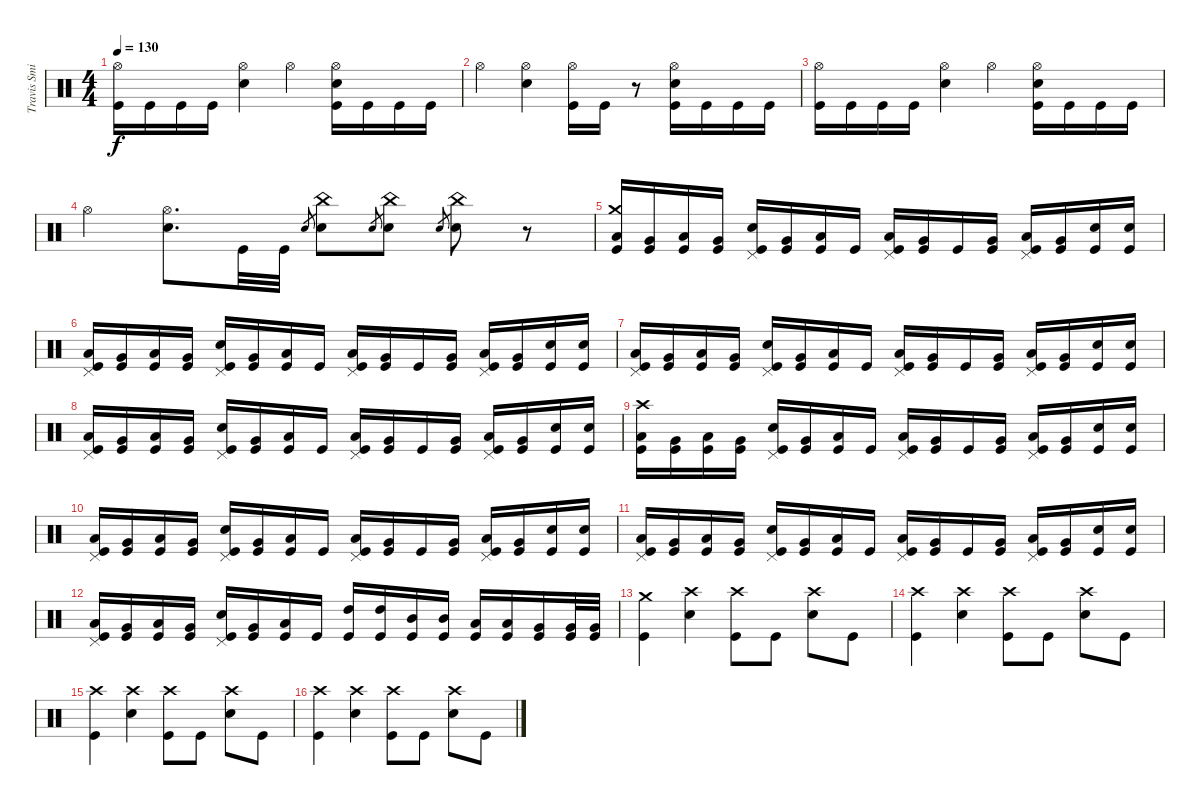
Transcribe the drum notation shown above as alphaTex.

\track ("Travis Smith" "Travis Smi") {instrument percussion}
\staff {score}
\articulation defaults
\ts (4 4)
\tempo 130
\clef neutral
\ks c
("Hi-Hat (open)" "Kick (hit)").16{dy f} "Kick (hit)".16 "Kick (hit)".16 "Kick (hit)".16 ("Hi-Hat (open)" "Snare (hit) 2").4 "Hi-Hat (open)".4 ("Hi-Hat (open)" "Snare (hit) 2" "Kick (hit)").16 "Kick (hit)".16 "Kick (hit)".16 "Kick (hit)".16 |
"Hi-Hat (open)".4 ("Hi-Hat (open)" "Snare (hit) 2").4 ("Hi-Hat (open)" "Kick (hit)").16 "Kick (hit)".16 r.8 ("Hi-Hat (open)" "Snare (hit) 2" "Kick (hit)").16 "Kick (hit)".16 "Kick (hit)".16 "Kick (hit)".16 |
("Hi-Hat (open)" "Kick (hit)").16 "Kick (hit)".16 "Kick (hit)".16 "Kick (hit)".16 ("Hi-Hat (open)" "Snare (hit) 2").4 "Hi-Hat (open)".4 ("Hi-Hat (open)" "Snare (hit) 2" "Kick (hit)").16 "Kick (hit)".16 "Kick (hit)".16 "Kick (hit)".16 |
"Hi-Hat (open)".4 ("Hi-Hat (open)" "Snare (hit) 2").8{d} "Kick (hit)".32 "Kick (hit)".32 "Snare (hit) 2".8{gr} ("China (hit)" "Snare (hit) 2").8 "Snare (hit) 2".8{gr} ("China (hit)" "Snare (hit) 2").8 "Snare (hit) 2".8{gr} ("China (hit)" "Snare (hit) 2").8 r.8 |
("Crash medium (hit)" "Low Tom (hit)" "Kick (hit)").16 ("Very Low Tom (hit)" "Kick (hit)").16 ("Low Tom (hit)" "Kick (hit)").16 ("Very Low Tom (hit)" "Kick (hit)").16 ("Pedal Hi-Hat (hit)" "Snare (hit) 2" "Kick (hit)").16 ("Very Low Tom (hit)" "Kick (hit)").16 ("Low Tom (hit)" "Kick (hit)").16 "Kick (hit)".16 ("Pedal Hi-Hat (hit)" "Low Tom (hit)" "Kick (hit)").16 ("Very Low Tom (hit)" "Kick (hit)").16 "Kick (hit)".16 ("Very Low Tom (hit)" "Kick (hit)").16 ("Pedal Hi-Hat (hit)" "Low Tom (hit)" "Kick (hit)").16 ("Very Low Tom (hit)" "Kick (hit)").16 ("Snare (hit) 2" "Kick (hit)").16 ("Snare (hit) 2" "Kick (hit)").16 |
("Pedal Hi-Hat (hit)" "Low Tom (hit)" "Kick (hit)").16 ("Very Low Tom (hit)" "Kick (hit)").16 ("Low Tom (hit)" "Kick (hit)").16 ("Very Low Tom (hit)" "Kick (hit)").16 ("Pedal Hi-Hat (hit)" "Snare (hit) 2" "Kick (hit)").16 ("Very Low Tom (hit)" "Kick (hit)").16 ("Low Tom (hit)" "Kick (hit)").16 "Kick (hit)".16 ("Pedal Hi-Hat (hit)" "Low Tom (hit)" "Kick (hit)").16 ("Very Low Tom (hit)" "Kick (hit)").16 "Kick (hit)".16 ("Very Low Tom (hit)" "Kick (hit)").16 ("Pedal Hi-Hat (hit)" "Low Tom (hit)" "Kick (hit)").16 ("Very Low Tom (hit)" "Kick (hit)").16 ("Snare (hit) 2" "Kick (hit)").16 ("Snare (hit) 2" "Kick (hit)").16 |
("Pedal Hi-Hat (hit)" "Low Tom (hit)" "Kick (hit)").16 ("Very Low Tom (hit)" "Kick (hit)").16 ("Low Tom (hit)" "Kick (hit)").16 ("Very Low Tom (hit)" "Kick (hit)").16 ("Pedal Hi-Hat (hit)" "Snare (hit) 2" "Kick (hit)").16 ("Very Low Tom (hit)" "Kick (hit)").16 ("Low Tom (hit)" "Kick (hit)").16 "Kick (hit)".16 ("Pedal Hi-Hat (hit)" "Low Tom (hit)" "Kick (hit)").16 ("Very Low Tom (hit)" "Kick (hit)").16 "Kick (hit)".16 ("Very Low Tom (hit)" "Kick (hit)").16 ("Pedal Hi-Hat (hit)" "Low Tom (hit)" "Kick (hit)").16 ("Very Low Tom (hit)" "Kick (hit)").16 ("Snare (hit) 2" "Kick (hit)").16 ("Snare (hit) 2" "Kick (hit)").16 |
("Pedal Hi-Hat (hit)" "Low Tom (hit)" "Kick (hit)").16 ("Very Low Tom (hit)" "Kick (hit)").16 ("Low Tom (hit)" "Kick (hit)").16 ("Very Low Tom (hit)" "Kick (hit)").16 ("Pedal Hi-Hat (hit)" "Snare (hit) 2" "Kick (hit)").16 ("Very Low Tom (hit)" "Kick (hit)").16 ("Low Tom (hit)" "Kick (hit)").16 "Kick (hit)".16 ("Pedal Hi-Hat (hit)" "Low Tom (hit)" "Kick (hit)").16 ("Very Low Tom (hit)" "Kick (hit)").16 "Kick (hit)".16 ("Very Low Tom (hit)" "Kick (hit)").16 ("Pedal Hi-Hat (hit)" "Low Tom (hit)" "Kick (hit)").16 ("Very Low Tom (hit)" "Kick (hit)").16 ("Snare (hit) 2" "Kick (hit)").16 ("Snare (hit) 2" "Kick (hit)").16 |
("Crash high (hit)" "Low Tom (hit)" "Kick (hit)").16 ("Very Low Tom (hit)" "Kick (hit)").16 ("Low Tom (hit)" "Kick (hit)").16 ("Very Low Tom (hit)" "Kick (hit)").16 ("Pedal Hi-Hat (hit)" "Snare (hit) 2" "Kick (hit)").16 ("Very Low Tom (hit)" "Kick (hit)").16 ("Low Tom (hit)" "Kick (hit)").16 "Kick (hit)".16 ("Pedal Hi-Hat (hit)" "Low Tom (hit)" "Kick (hit)").16 ("Very Low Tom (hit)" "Kick (hit)").16 "Kick (hit)".16 ("Very Low Tom (hit)" "Kick (hit)").16 ("Pedal Hi-Hat (hit)" "Low Tom (hit)" "Kick (hit)").16 ("Very Low Tom (hit)" "Kick (hit)").16 ("Snare (hit) 2" "Kick (hit)").16 ("Snare (hit) 2" "Kick (hit)").16 |
("Pedal Hi-Hat (hit)" "Low Tom (hit)" "Kick (hit)").16 ("Very Low Tom (hit)" "Kick (hit)").16 ("Low Tom (hit)" "Kick (hit)").16 ("Very Low Tom (hit)" "Kick (hit)").16 ("Pedal Hi-Hat (hit)" "Snare (hit) 2" "Kick (hit)").16 ("Very Low Tom (hit)" "Kick (hit)").16 ("Low Tom (hit)" "Kick (hit)").16 "Kick (hit)".16 ("Pedal Hi-Hat (hit)" "Low Tom (hit)" "Kick (hit)").16 ("Very Low Tom (hit)" "Kick (hit)").16 "Kick (hit)".16 ("Very Low Tom (hit)" "Kick (hit)").16 ("Pedal Hi-Hat (hit)" "Low Tom (hit)" "Kick (hit)").16 ("Very Low Tom (hit)" "Kick (hit)").16 ("Snare (hit) 2" "Kick (hit)").16 ("Snare (hit) 2" "Kick (hit)").16 |
("Pedal Hi-Hat (hit)" "Low Tom (hit)" "Kick (hit)").16 ("Very Low Tom (hit)" "Kick (hit)").16 ("Low Tom (hit)" "Kick (hit)").16 ("Very Low Tom (hit)" "Kick (hit)").16 ("Pedal Hi-Hat (hit)" "Snare (hit) 2" "Kick (hit)").16 ("Very Low Tom (hit)" "Kick (hit)").16 ("Low Tom (hit)" "Kick (hit)").16 "Kick (hit)".16 ("Pedal Hi-Hat (hit)" "Low Tom (hit)" "Kick (hit)").16 ("Very Low Tom (hit)" "Kick (hit)").16 "Kick (hit)".16 ("Very Low Tom (hit)" "Kick (hit)").16 ("Pedal Hi-Hat (hit)" "Low Tom (hit)" "Kick (hit)").16 ("Very Low Tom (hit)" "Kick (hit)").16 ("Snare (hit) 2" "Kick (hit)").16 ("Snare (hit) 2" "Kick (hit)").16 |
("Pedal Hi-Hat (hit)" "Low Tom (hit)" "Kick (hit)").16 ("Very Low Tom (hit)" "Kick (hit)").16 ("Low Tom (hit)" "Kick (hit)").16 ("Very Low Tom (hit)" "Kick (hit)").16 ("Pedal Hi-Hat (hit)" "Snare (hit) 2" "Kick (hit)").16 ("Very Low Tom (hit)" "Kick (hit)").16 ("Low Tom (hit)" "Kick (hit)").16 "Kick (hit)".16 ("High Tom (hit)" "Kick (hit)").16 ("High Tom (hit)" "Kick (hit)").16 ("Mid Tom (hit)" "Kick (hit)").16 ("Mid Tom (hit)" "Kick (hit)").16 ("Low Tom (hit)" "Kick (hit)").16 ("Low Tom (hit)" "Kick (hit)").16 ("Very Low Tom (hit)" "Kick (hit)").16 ("Very Low Tom (hit)" "Kick (hit)").32 ("Very Low Tom (hit)" "Kick (hit)").32 |
("Crash medium (hit)" "Kick (hit)").4 ("Crash high (hit)" "Snare (hit) 2").4 ("Crash high (hit)" "Kick (hit)").8 "Kick (hit)".8 ("Crash high (hit)" "Snare (hit) 2").8 "Kick (hit)".8 |
("Crash high (hit)" "Kick (hit)").4 ("Crash high (hit)" "Snare (hit) 2").4 ("Crash high (hit)" "Kick (hit)").8 "Kick (hit)".8 ("Crash high (hit)" "Snare (hit) 2").8 "Kick (hit)".8 |
("Crash high (hit)" "Kick (hit)").4 ("Crash high (hit)" "Snare (hit) 2").4 ("Crash high (hit)" "Kick (hit)").8 "Kick (hit)".8 ("Crash high (hit)" "Snare (hit) 2").8 "Kick (hit)".8 |
("Crash high (hit)" "Kick (hit)").4 ("Crash high (hit)" "Snare (hit) 2").4 ("Crash high (hit)" "Kick (hit)").8 "Kick (hit)".8 ("Crash high (hit)" "Snare (hit) 2").8 "Kick (hit)".8
